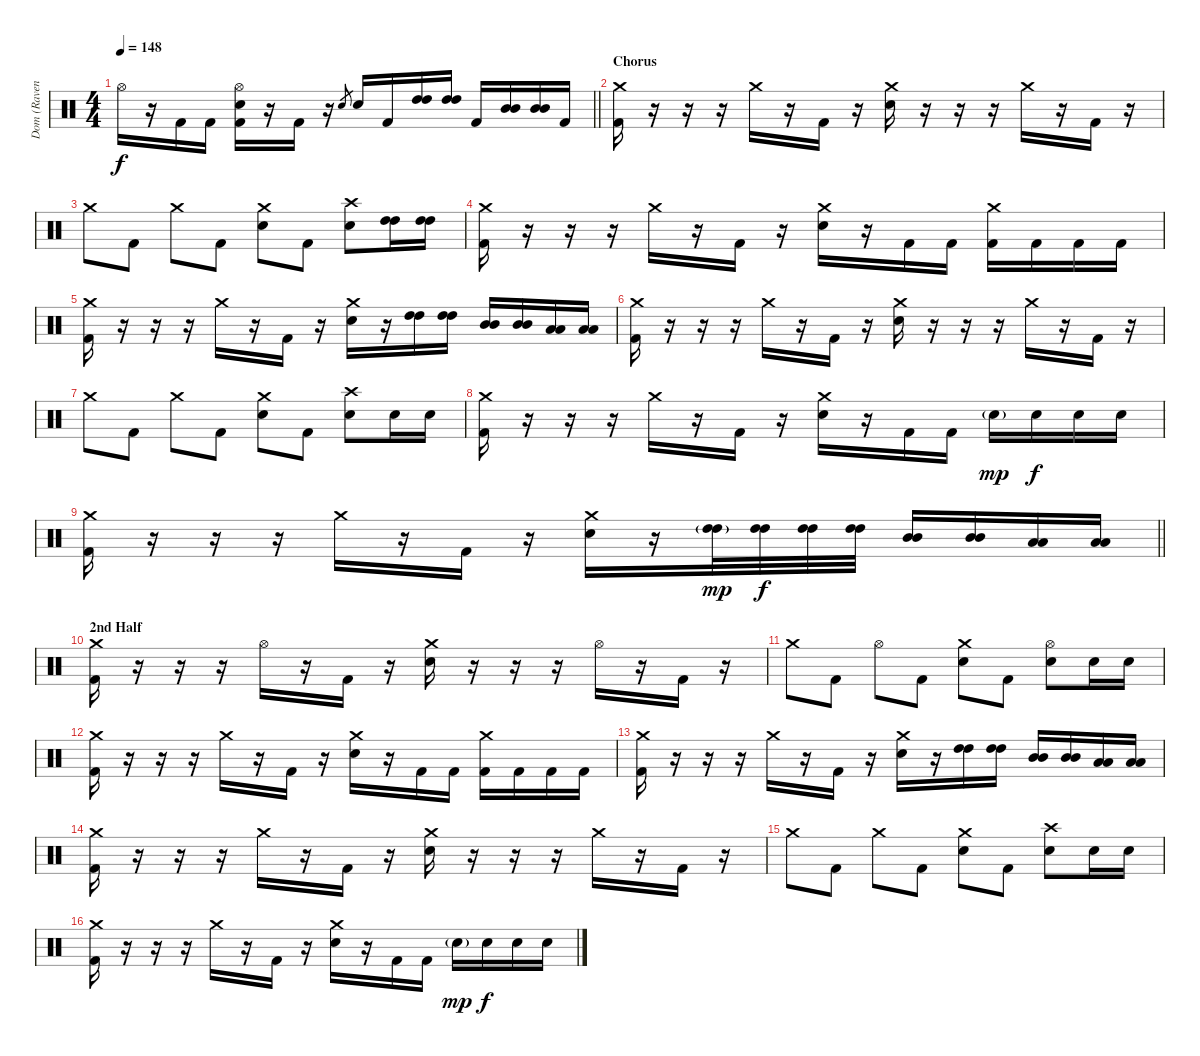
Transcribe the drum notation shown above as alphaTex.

\track ("Dom (Ravenface)" "Dom (Raven") {instrument percussion}
\staff {score}
\articulation defaults
\ts (4 4)
\tempo 148
\clef neutral
\barLineRight lightlight
\ks c "Hi-Hat (open)".16{dy f}
r.16 "Kick (hit) 2".16 "Kick (hit) 2".16 ("Hi-Hat (open)" "Electric Snare (hit)" "Kick (hit) 2").16 r.16 "Kick (hit) 2".16 r.16 "Electric Snare (hit)".8{gr} "Electric Snare (hit)".16 "Kick (hit) 2".16 ("High Tom (hit)" "High Tom (hit)").16 ("High Tom (hit)" "High Tom (hit)").16 "Kick (hit) 2".16 ("Mid Tom (hit)" "Mid Tom (hit)").16 ("Mid Tom (hit)" "Mid Tom (hit)").16 "Kick (hit) 2".16 |
\section ("" "Chorus")
("Crash medium (hit)" "Kick (hit) 2").16 r.16 r.16 r.16 "Crash medium (hit)".16 r.16 "Kick (hit) 2".16 r.16 ("Crash medium (hit)" "Electric Snare (hit)").16 r.16 r.16 r.16 "Crash medium (hit)".16 r.16 "Kick (hit) 2".16 r.16 |
"Crash medium (hit)".8 "Kick (hit) 2".8 "Crash medium (hit)".8 "Kick (hit) 2".8 ("Crash medium (hit)" "Electric Snare (hit)").8 "Kick (hit) 2".8 ("Crash high (hit)" "Electric Snare (hit)").8 ("High Tom (hit)" "High Tom (hit)").16 ("High Tom (hit)" "High Tom (hit)").16 |
("Crash medium (hit)" "Kick (hit) 2").16 r.16 r.16 r.16 "Crash medium (hit)".16 r.16 "Kick (hit) 2".16 r.16 ("Crash medium (hit)" "Electric Snare (hit)").16 r.16 "Kick (hit) 2".16 "Kick (hit) 2".16 ("Crash medium (hit)" "Kick (hit) 2").16 "Kick (hit) 2".16 "Kick (hit) 2".16 "Kick (hit) 2".16 |
("Crash medium (hit)" "Kick (hit) 2").16 r.16 r.16 r.16 "Crash medium (hit)".16 r.16 "Kick (hit) 2".16 r.16 ("Crash medium (hit)" "Electric Snare (hit)").16 r.16 ("High Tom (hit)" "High Tom (hit)").16 ("High Tom (hit)" "High Tom (hit)").16 ("Mid Tom (hit)" "Mid Tom (hit)").16 ("Mid Tom (hit)" "Mid Tom (hit)").16 ("Low Tom (hit)" "Low Tom (hit)").16 ("Low Tom (hit)" "Low Tom (hit)").16 |
("Crash medium (hit)" "Kick (hit) 2").16 r.16 r.16 r.16 "Crash medium (hit)".16 r.16 "Kick (hit) 2".16 r.16 ("Crash medium (hit)" "Electric Snare (hit)").16 r.16 r.16 r.16 "Crash medium (hit)".16 r.16 "Kick (hit) 2".16 r.16 |
"Crash medium (hit)".8 "Kick (hit) 2".8 "Crash medium (hit)".8 "Kick (hit) 2".8 ("Crash medium (hit)" "Electric Snare (hit)").8 "Kick (hit) 2".8 ("Crash high (hit)" "Electric Snare (hit)").8 "Electric Snare (hit)".16 "Electric Snare (hit)".16 |
("Crash medium (hit)" "Kick (hit) 2").16 r.16 r.16 r.16 "Crash medium (hit)".16 r.16 "Kick (hit) 2".16 r.16 ("Crash medium (hit)" "Electric Snare (hit)").16 r.16 "Kick (hit) 2".16 "Kick (hit) 2".16 "Electric Snare (hit)"{g}.16{dy mp} "Electric Snare (hit)".16{dy f} "Electric Snare (hit)".16 "Electric Snare (hit)".16 |
\barLineRight lightlight
("Crash medium (hit)" "Kick (hit) 2").16 r.16 r.16 r.16 "Crash medium (hit)".16 r.16 "Kick (hit) 2".16 r.16 ("Crash medium (hit)" "Electric Snare (hit)").16 r.16 ("High Tom (hit)"{g} "High Tom (hit)"{g}).32{dy mp} ("High Tom (hit)" "High Tom (hit)").32{dy f} ("High Tom (hit)" "High Tom (hit)").32 ("High Tom (hit)" "High Tom (hit)").32 ("Mid Tom (hit)" "Mid Tom (hit)").16 ("Mid Tom (hit)" "Mid Tom (hit)").16 ("Low Tom (hit)" "Low Tom (hit)").16 ("Low Tom (hit)" "Low Tom (hit)").16 |
\section ("" "2nd Half")
("Crash medium (hit)" "Kick (hit) 2").16 r.16 r.16 r.16 "Hi-Hat (open)".16 r.16 "Kick (hit) 2".16 r.16 ("Crash medium (hit)" "Electric Snare (hit)").16 r.16 r.16 r.16 "Hi-Hat (open)".16 r.16 "Kick (hit) 2".16 r.16 |
"Crash medium (hit)".8 "Kick (hit) 2".8 "Hi-Hat (open)".8 "Kick (hit) 2".8 ("Crash medium (hit)" "Electric Snare (hit)").8 "Kick (hit) 2".8 ("Hi-Hat (open)" "Electric Snare (hit)").8 "Electric Snare (hit)".16 "Electric Snare (hit)".16 |
("Crash medium (hit)" "Kick (hit) 2").16 r.16 r.16 r.16 "Crash medium (hit)".16 r.16 "Kick (hit) 2".16 r.16 ("Crash medium (hit)" "Electric Snare (hit)").16 r.16 "Kick (hit) 2".16 "Kick (hit) 2".16 ("Crash medium (hit)" "Kick (hit) 2").16 "Kick (hit) 2".16 "Kick (hit) 2".16 "Kick (hit) 2".16 |
("Crash medium (hit)" "Kick (hit) 2").16 r.16 r.16 r.16 "Crash medium (hit)".16 r.16 "Kick (hit) 2".16 r.16 ("Crash medium (hit)" "Electric Snare (hit)").16 r.16 ("High Tom (hit)" "High Tom (hit)").16 ("High Tom (hit)" "High Tom (hit)").16 ("Mid Tom (hit)" "Mid Tom (hit)").16 ("Mid Tom (hit)" "Mid Tom (hit)").16 ("Low Tom (hit)" "Low Tom (hit)").16 ("Low Tom (hit)" "Low Tom (hit)").16 |
("Crash medium (hit)" "Kick (hit) 2").16 r.16 r.16 r.16 "Crash medium (hit)".16 r.16 "Kick (hit) 2".16 r.16 ("Crash medium (hit)" "Electric Snare (hit)").16 r.16 r.16 r.16 "Crash medium (hit)".16 r.16 "Kick (hit) 2".16 r.16 |
"Crash medium (hit)".8 "Kick (hit) 2".8 "Crash medium (hit)".8 "Kick (hit) 2".8 ("Crash medium (hit)" "Electric Snare (hit)").8 "Kick (hit) 2".8 ("Crash high (hit)" "Electric Snare (hit)").8 "Electric Snare (hit)".16 "Electric Snare (hit)".16 |
("Crash medium (hit)" "Kick (hit) 2").16 r.16 r.16 r.16 "Crash medium (hit)".16 r.16 "Kick (hit) 2".16 r.16 ("Crash medium (hit)" "Electric Snare (hit)").16 r.16 "Kick (hit) 2".16 "Kick (hit) 2".16 "Electric Snare (hit)"{g}.16{dy mp} "Electric Snare (hit)".16{dy f} "Electric Snare (hit)".16 "Electric Snare (hit)".16
